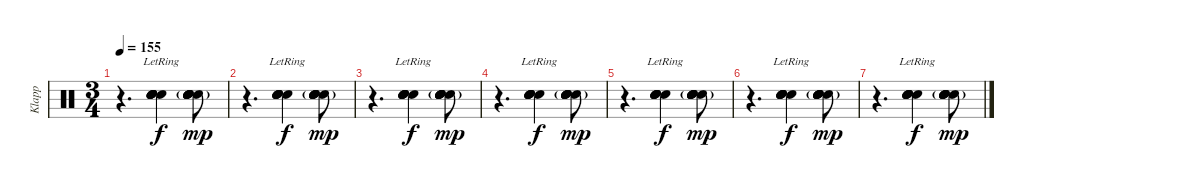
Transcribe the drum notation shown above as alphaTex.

\track ("Klapp" "Klapp") {instrument percussion}
\staff {score}
\articulation defaults
\ts (3 4)
\tempo 155
\clef neutral
\ks c
r.4{d dy mp} ("Hand Clap (hit)"{lr} "Hand Clap (hit)"{lr} "Hand Clap (hit)"{lr} "Hand Clap (hit)"{lr} "Hand Clap (hit)"{lr} "Hand Clap (hit)"{lr}).4{dy f} ("Hand Clap (hit)"{g} "Hand Clap (hit)"{g} "Hand Clap (hit)"{g} "Hand Clap (hit)"{g} "Hand Clap (hit)"{g} "Hand Clap (hit)"{g}).8{dy mp} |
r.4{d} ("Hand Clap (hit)"{lr} "Hand Clap (hit)"{lr} "Hand Clap (hit)"{lr} "Hand Clap (hit)"{lr} "Hand Clap (hit)"{lr} "Hand Clap (hit)"{lr}).4{dy f} ("Hand Clap (hit)"{g} "Hand Clap (hit)"{g} "Hand Clap (hit)"{g} "Hand Clap (hit)"{g} "Hand Clap (hit)"{g} "Hand Clap (hit)"{g}).8{dy mp} |
r.4{d} ("Hand Clap (hit)"{lr} "Hand Clap (hit)"{lr} "Hand Clap (hit)"{lr} "Hand Clap (hit)"{lr} "Hand Clap (hit)"{lr} "Hand Clap (hit)"{lr}).4{dy f} ("Hand Clap (hit)"{g} "Hand Clap (hit)"{g} "Hand Clap (hit)"{g} "Hand Clap (hit)"{g} "Hand Clap (hit)"{g} "Hand Clap (hit)"{g}).8{dy mp} |
r.4{d} ("Hand Clap (hit)"{lr} "Hand Clap (hit)"{lr} "Hand Clap (hit)"{lr} "Hand Clap (hit)"{lr} "Hand Clap (hit)"{lr} "Hand Clap (hit)"{lr}).4{dy f} ("Hand Clap (hit)"{g} "Hand Clap (hit)"{g} "Hand Clap (hit)"{g} "Hand Clap (hit)"{g} "Hand Clap (hit)"{g} "Hand Clap (hit)"{g}).8{dy mp} |
r.4{d} ("Hand Clap (hit)"{lr} "Hand Clap (hit)"{lr} "Hand Clap (hit)"{lr} "Hand Clap (hit)"{lr} "Hand Clap (hit)"{lr} "Hand Clap (hit)"{lr}).4{dy f} ("Hand Clap (hit)"{g} "Hand Clap (hit)"{g} "Hand Clap (hit)"{g} "Hand Clap (hit)"{g} "Hand Clap (hit)"{g} "Hand Clap (hit)"{g}).8{dy mp} |
r.4{d} ("Hand Clap (hit)"{lr} "Hand Clap (hit)"{lr} "Hand Clap (hit)"{lr} "Hand Clap (hit)"{lr} "Hand Clap (hit)"{lr} "Hand Clap (hit)"{lr}).4{dy f} ("Hand Clap (hit)"{g} "Hand Clap (hit)"{g} "Hand Clap (hit)"{g} "Hand Clap (hit)"{g} "Hand Clap (hit)"{g} "Hand Clap (hit)"{g}).8{dy mp} |
r.4{d} ("Hand Clap (hit)"{lr} "Hand Clap (hit)"{lr} "Hand Clap (hit)"{lr} "Hand Clap (hit)"{lr} "Hand Clap (hit)"{lr} "Hand Clap (hit)"{lr}).4{dy f} ("Hand Clap (hit)"{g} "Hand Clap (hit)"{g} "Hand Clap (hit)"{g} "Hand Clap (hit)"{g} "Hand Clap (hit)"{g} "Hand Clap (hit)"{g}).8{dy mp}
